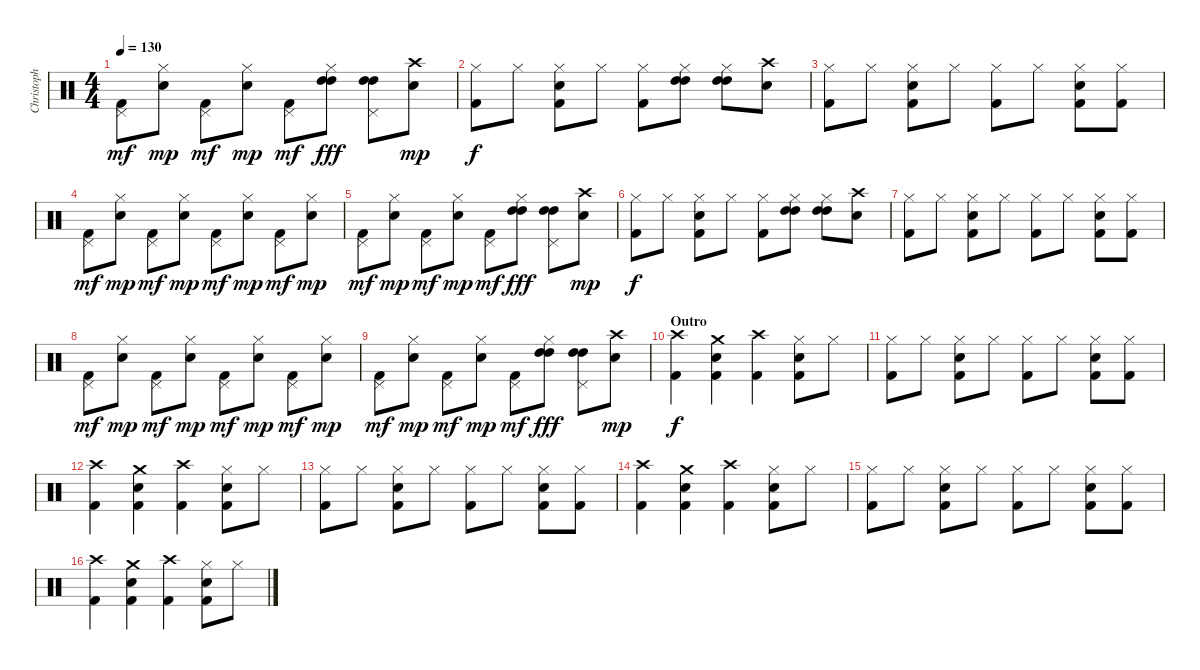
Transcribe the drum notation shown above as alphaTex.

\track ("Christoph" "Christoph") {instrument percussion}
\staff {score}
\articulation defaults
\ts (4 4)
\tempo 130
\clef neutral
\ks c
("Pedal Hi-Hat (hit)" "Kick (hit) 2").8{dy mf} ("Hi-Hat (closed)" "Electric Snare (hit)").8{dy mp} ("Pedal Hi-Hat (hit)" "Kick (hit) 2").8{dy mf} ("Hi-Hat (closed)" "Electric Snare (hit)").8{dy mp} ("Pedal Hi-Hat (hit)" "Kick (hit) 2").8{dy mf} ("Hi-Hat (closed)" "High Tom (hit)" "High Tom (hit)").8{dy fff} ("Pedal Hi-Hat (hit)" "High Tom (hit)" "High Tom (hit)").8 ("Crash high (hit)" "Electric Snare (hit)").8{dy mp} |
("Hi-Hat (closed)" "Kick (hit) 2").8{dy f} "Hi-Hat (closed)".8 ("Hi-Hat (closed)" "Electric Snare (hit)" "Kick (hit) 2").8 "Hi-Hat (closed)".8 ("Hi-Hat (closed)" "Kick (hit) 2").8 ("Hi-Hat (closed)" "High Tom (hit)" "High Tom (hit)").8 ("Hi-Hat (closed)" "High Tom (hit)" "High Tom (hit)").8 ("Crash high (hit)" "Electric Snare (hit)").8 |
("Hi-Hat (closed)" "Kick (hit) 2").8 "Hi-Hat (closed)".8 ("Hi-Hat (closed)" "Electric Snare (hit)" "Kick (hit) 2").8 "Hi-Hat (closed)".8 ("Hi-Hat (closed)" "Kick (hit) 2").8 "Hi-Hat (closed)".8 ("Hi-Hat (closed)" "Electric Snare (hit)" "Kick (hit) 2").8 ("Hi-Hat (closed)" "Kick (hit) 2").8 |
("Pedal Hi-Hat (hit)" "Kick (hit) 2").8{dy mf} ("Hi-Hat (closed)" "Electric Snare (hit)").8{dy mp} ("Pedal Hi-Hat (hit)" "Kick (hit) 2").8{dy mf} ("Hi-Hat (closed)" "Electric Snare (hit)").8{dy mp} ("Pedal Hi-Hat (hit)" "Kick (hit) 2").8{dy mf} ("Hi-Hat (closed)" "Electric Snare (hit)").8{dy mp} ("Pedal Hi-Hat (hit)" "Kick (hit) 2").8{dy mf} ("Hi-Hat (closed)" "Electric Snare (hit)").8{dy mp} |
("Pedal Hi-Hat (hit)" "Kick (hit) 2").8{dy mf} ("Hi-Hat (closed)" "Electric Snare (hit)").8{dy mp} ("Pedal Hi-Hat (hit)" "Kick (hit) 2").8{dy mf} ("Hi-Hat (closed)" "Electric Snare (hit)").8{dy mp} ("Pedal Hi-Hat (hit)" "Kick (hit) 2").8{dy mf} ("Hi-Hat (closed)" "High Tom (hit)" "High Tom (hit)").8{dy fff} ("Pedal Hi-Hat (hit)" "High Tom (hit)" "High Tom (hit)").8 ("Crash high (hit)" "Electric Snare (hit)").8{dy mp} |
("Hi-Hat (closed)" "Kick (hit) 2").8{dy f} "Hi-Hat (closed)".8 ("Hi-Hat (closed)" "Electric Snare (hit)" "Kick (hit) 2").8 "Hi-Hat (closed)".8 ("Hi-Hat (closed)" "Kick (hit) 2").8 ("Hi-Hat (closed)" "High Tom (hit)" "High Tom (hit)").8 ("Hi-Hat (closed)" "High Tom (hit)" "High Tom (hit)").8 ("Crash high (hit)" "Electric Snare (hit)").8 |
("Hi-Hat (closed)" "Kick (hit) 2").8 "Hi-Hat (closed)".8 ("Hi-Hat (closed)" "Electric Snare (hit)" "Kick (hit) 2").8 "Hi-Hat (closed)".8 ("Hi-Hat (closed)" "Kick (hit) 2").8 "Hi-Hat (closed)".8 ("Hi-Hat (closed)" "Electric Snare (hit)" "Kick (hit) 2").8 ("Hi-Hat (closed)" "Kick (hit) 2").8 |
("Pedal Hi-Hat (hit)" "Kick (hit) 2").8{dy mf} ("Hi-Hat (closed)" "Electric Snare (hit)").8{dy mp} ("Pedal Hi-Hat (hit)" "Kick (hit) 2").8{dy mf} ("Hi-Hat (closed)" "Electric Snare (hit)").8{dy mp} ("Pedal Hi-Hat (hit)" "Kick (hit) 2").8{dy mf} ("Hi-Hat (closed)" "Electric Snare (hit)").8{dy mp} ("Pedal Hi-Hat (hit)" "Kick (hit) 2").8{dy mf} ("Hi-Hat (closed)" "Electric Snare (hit)").8{dy mp} |
("Pedal Hi-Hat (hit)" "Kick (hit) 2").8{dy mf} ("Hi-Hat (closed)" "Electric Snare (hit)").8{dy mp} ("Pedal Hi-Hat (hit)" "Kick (hit) 2").8{dy mf} ("Hi-Hat (closed)" "Electric Snare (hit)").8{dy mp} ("Pedal Hi-Hat (hit)" "Kick (hit) 2").8{dy mf} ("Hi-Hat (closed)" "High Tom (hit)" "High Tom (hit)").8{dy fff} ("Pedal Hi-Hat (hit)" "High Tom (hit)" "High Tom (hit)").8 ("Crash high (hit)" "Electric Snare (hit)").8{dy mp} |
\section ("" "Outro")
("Crash high (hit)" "Kick (hit) 2").4{dy f} ("Crash medium (hit)" "Electric Snare (hit)" "Kick (hit) 2").4 ("Crash high (hit)" "Kick (hit) 2").4 ("Hi-Hat (closed)" "Electric Snare (hit)" "Kick (hit) 2").8 "Hi-Hat (closed)".8 |
("Hi-Hat (closed)" "Kick (hit) 2").8 "Hi-Hat (closed)".8 ("Hi-Hat (closed)" "Electric Snare (hit)" "Kick (hit) 2").8 "Hi-Hat (closed)".8 ("Hi-Hat (closed)" "Kick (hit) 2").8 "Hi-Hat (closed)".8 ("Hi-Hat (closed)" "Electric Snare (hit)" "Kick (hit) 2").8 ("Hi-Hat (closed)" "Kick (hit) 2").8 |
("Crash high (hit)" "Kick (hit) 2").4 ("Crash medium (hit)" "Electric Snare (hit)" "Kick (hit) 2").4 ("Crash high (hit)" "Kick (hit) 2").4 ("Hi-Hat (closed)" "Electric Snare (hit)" "Kick (hit) 2").8 "Hi-Hat (closed)".8 |
("Hi-Hat (closed)" "Kick (hit) 2").8 "Hi-Hat (closed)".8 ("Hi-Hat (closed)" "Electric Snare (hit)" "Kick (hit) 2").8 "Hi-Hat (closed)".8 ("Hi-Hat (closed)" "Kick (hit) 2").8 "Hi-Hat (closed)".8 ("Hi-Hat (closed)" "Electric Snare (hit)" "Kick (hit) 2").8 ("Hi-Hat (closed)" "Kick (hit) 2").8 |
("Crash high (hit)" "Kick (hit) 2").4 ("Crash medium (hit)" "Electric Snare (hit)" "Kick (hit) 2").4 ("Crash high (hit)" "Kick (hit) 2").4 ("Hi-Hat (closed)" "Electric Snare (hit)" "Kick (hit) 2").8 "Hi-Hat (closed)".8 |
("Hi-Hat (closed)" "Kick (hit) 2").8 "Hi-Hat (closed)".8 ("Hi-Hat (closed)" "Electric Snare (hit)" "Kick (hit) 2").8 "Hi-Hat (closed)".8 ("Hi-Hat (closed)" "Kick (hit) 2").8 "Hi-Hat (closed)".8 ("Hi-Hat (closed)" "Electric Snare (hit)" "Kick (hit) 2").8 ("Hi-Hat (closed)" "Kick (hit) 2").8 |
("Crash high (hit)" "Kick (hit) 2").4 ("Crash medium (hit)" "Electric Snare (hit)" "Kick (hit) 2").4 ("Crash high (hit)" "Kick (hit) 2").4 ("Hi-Hat (closed)" "Electric Snare (hit)" "Kick (hit) 2").8 "Hi-Hat (closed)".8
